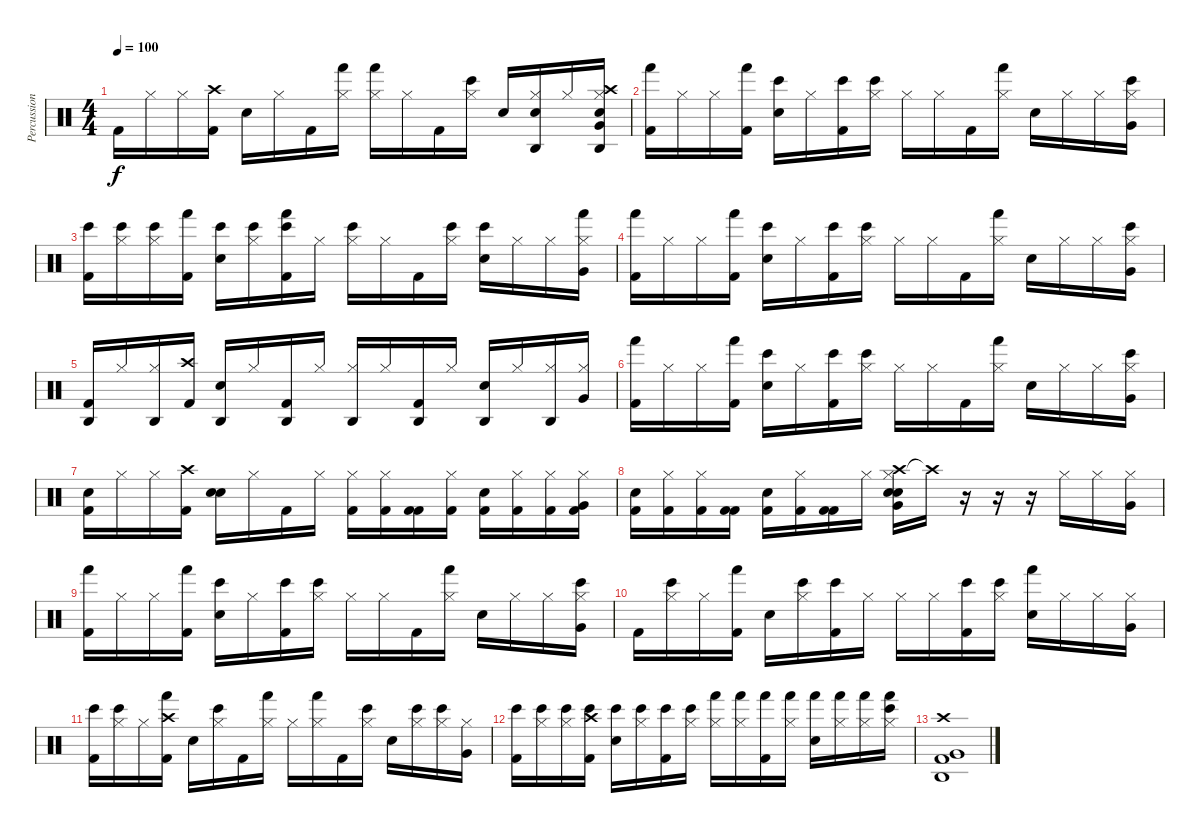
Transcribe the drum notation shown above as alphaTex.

\track ("Percussions" "Percussion") {instrument percussion}
\staff {score}
\articulation defaults
\ts (4 4)
\tempo 100
\clef neutral
\ks c "Kick (hit) 2".16{dy f} "Hi-Hat (closed)".16 "Hi-Hat (closed)".16
("Kick (hit) 2" "Crash high (hit)").16 "Electric Snare (hit)".16 "Hi-Hat (closed)".16 "Kick (hit) 2".16 ("Hi-Hat (closed)" "Hand (hit)").16 ("Hi-Hat (closed)" "Hand (hit)").16 "Hi-Hat (closed)".16 "Kick (hit) 2".16 ("Hi-Hat (closed)" "Bongo High (hit)").16 "Electric Snare (hit)".16 ("Hi-Hat (closed)" "Electric Snare (hit)" "Agogo high (hit)").16 "Hi-Hat (closed)".16 ("Hi-Hat (closed)" "Agogo high (hit)" "Crash high (hit)" "Electric Snare (hit)" "Very Low Tom (hit)").16 |
("Kick (hit) 2" "Hand (hit)").16 "Hi-Hat (closed)".16 "Hi-Hat (closed)".16 ("Kick (hit) 2" "Hand (hit)").16 ("Electric Snare (hit)" "Bongo High (hit)").16 "Hi-Hat (closed)".16 ("Kick (hit) 2" "Bongo High (hit)").16 ("Hi-Hat (closed)" "Bongo High (hit)").16 "Hi-Hat (closed)".16 "Hi-Hat (closed)".16 "Kick (hit) 2".16 ("Hi-Hat (closed)" "Hand (hit)").16 "Electric Snare (hit)".16 "Hi-Hat (closed)".16 "Hi-Hat (closed)".16 ("Hi-Hat (closed)" "Bongo High (hit)" "Very Low Tom (hit)").16 |
("Kick (hit) 2" "Bongo High (hit)").16 ("Hi-Hat (closed)" "Bongo High (hit)").16 ("Hi-Hat (closed)" "Bongo High (hit)").16 ("Kick (hit) 2" "Hand (hit)").16 ("Electric Snare (hit)" "Bongo High (hit)").16 ("Hi-Hat (closed)" "Bongo High (hit)").16 ("Kick (hit) 2" "Bongo High (hit)" "Hand (hit)").16 "Hi-Hat (closed)".16 ("Hi-Hat (closed)" "Bongo High (hit)").16 "Hi-Hat (closed)".16 "Kick (hit) 2".16 ("Hi-Hat (closed)" "Bongo High (hit)").16 ("Electric Snare (hit)" "Bongo High (hit)").16 "Hi-Hat (closed)".16 "Hi-Hat (closed)".16 ("Hi-Hat (closed)" "Hand (hit)" "Very Low Tom (hit)").16 |
("Kick (hit) 2" "Hand (hit)").16 "Hi-Hat (closed)".16 "Hi-Hat (closed)".16 ("Kick (hit) 2" "Hand (hit)").16 ("Electric Snare (hit)" "Bongo High (hit)").16 "Hi-Hat (closed)".16 ("Kick (hit) 2" "Bongo High (hit)").16 ("Hi-Hat (closed)" "Bongo High (hit)").16 "Hi-Hat (closed)".16 "Hi-Hat (closed)".16 "Kick (hit) 2".16 ("Hi-Hat (closed)" "Hand (hit)").16 "Electric Snare (hit)".16 "Hi-Hat (closed)".16 "Hi-Hat (closed)".16 ("Hi-Hat (closed)" "Bongo High (hit)" "Very Low Tom (hit)").16 |
("Kick (hit) 2" "Agogo high (hit)").16 "Hi-Hat (closed)".16 ("Hi-Hat (closed)" "Agogo high (hit)").16 ("Kick (hit) 2" "Crash high (hit)").16 ("Electric Snare (hit)" "Agogo high (hit)").16 "Hi-Hat (closed)".16 ("Kick (hit) 2" "Agogo high (hit)").16 "Hi-Hat (closed)".16 ("Hi-Hat (closed)" "Agogo high (hit)").16 "Hi-Hat (closed)".16 ("Kick (hit) 2" "Agogo high (hit)").16 "Hi-Hat (closed)".16 ("Electric Snare (hit)" "Agogo high (hit)").16 "Hi-Hat (closed)".16 ("Hi-Hat (closed)" "Agogo high (hit)").16 ("Hi-Hat (closed)" "Very Low Tom (hit)").16 |
("Kick (hit) 2" "Hand (hit)").16 "Hi-Hat (closed)".16 "Hi-Hat (closed)".16 ("Kick (hit) 2" "Hand (hit)").16 ("Electric Snare (hit)" "Bongo High (hit)").16 "Hi-Hat (closed)".16 ("Kick (hit) 2" "Bongo High (hit)").16 ("Hi-Hat (closed)" "Bongo High (hit)").16 "Hi-Hat (closed)".16 "Hi-Hat (closed)".16 "Kick (hit) 2".16 ("Hi-Hat (closed)" "Hand (hit)").16 "Electric Snare (hit)".16 "Hi-Hat (closed)".16 "Hi-Hat (closed)".16 ("Hi-Hat (closed)" "Bongo High (hit)" "Very Low Tom (hit)").16 |
("Kick (hit) 2" "Electric Snare (hit)").16 "Hi-Hat (closed)".16 "Hi-Hat (closed)".16 ("Kick (hit) 2" "Crash high (hit)").16 ("Electric Snare (hit)" "Electric Snare (hit)").16 "Hi-Hat (closed)".16 "Kick (hit) 2".16 "Hi-Hat (closed)".16 ("Hi-Hat (closed)" "Kick (hit) 2").16 ("Hi-Hat (closed)" "Kick (hit) 2").16 ("Kick (hit) 2" "Kick (hit) 2").16 ("Hi-Hat (closed)" "Kick (hit) 2").16 ("Electric Snare (hit)" "Kick (hit) 2").16 ("Hi-Hat (closed)" "Kick (hit) 2").16 ("Hi-Hat (closed)" "Kick (hit) 2").16 ("Hi-Hat (closed)" "Kick (hit) 2" "Very Low Tom (hit)").16 |
("Kick (hit) 2" "Electric Snare (hit)").16 ("Hi-Hat (closed)" "Kick (hit) 2").16 ("Hi-Hat (closed)" "Kick (hit) 2").16 ("Kick (hit) 2" "Kick (hit) 2").16 ("Electric Snare (hit)" "Kick (hit) 2").16 ("Hi-Hat (closed)" "Kick (hit) 2").16 ("Kick (hit) 2" "Kick (hit) 2").16 "Hi-Hat (closed)".16 ("Hi-Hat (closed)" "Electric Snare (hit)" "Very Low Tom (hit)" "Crash high (hit)" "Electric Snare (hit)").16 "Crash high (hit)"{t}.16 r.16 r.16 r.16 "Hi-Hat (closed)".16 "Hi-Hat (closed)".16 ("Hi-Hat (closed)" "Very Low Tom (hit)").16 |
("Kick (hit) 2" "Hand (hit)").16 "Hi-Hat (closed)".16 "Hi-Hat (closed)".16 ("Kick (hit) 2" "Hand (hit)").16 ("Electric Snare (hit)" "Bongo High (hit)").16 "Hi-Hat (closed)".16 ("Kick (hit) 2" "Bongo High (hit)").16 ("Hi-Hat (closed)" "Bongo High (hit)").16 "Hi-Hat (closed)".16 "Hi-Hat (closed)".16 "Kick (hit) 2".16 ("Hi-Hat (closed)" "Hand (hit)").16 "Electric Snare (hit)".16 "Hi-Hat (closed)".16 "Hi-Hat (closed)".16 ("Hi-Hat (closed)" "Bongo High (hit)" "Very Low Tom (hit)").16 |
"Kick (hit) 2".16 ("Hi-Hat (closed)" "Bongo High (hit)").16 "Hi-Hat (closed)".16 ("Kick (hit) 2" "Hand (hit)").16 "Electric Snare (hit)".16 ("Hi-Hat (closed)" "Bongo High (hit)").16 ("Kick (hit) 2" "Bongo High (hit)").16 "Hi-Hat (closed)".16 "Hi-Hat (closed)".16 "Hi-Hat (closed)".16 ("Kick (hit) 2" "Bongo High (hit)").16 ("Hi-Hat (closed)" "Bongo High (hit)").16 ("Electric Snare (hit)" "Hand (hit)").16 "Hi-Hat (closed)".16 "Hi-Hat (closed)".16 ("Hi-Hat (closed)" "Very Low Tom (hit)").16 |
("Kick (hit) 2" "Bongo High (hit)").16 ("Hi-Hat (closed)" "Bongo High (hit)").16 "Hi-Hat (closed)".16 ("Kick (hit) 2" "Hand (hit)" "Crash high (hit)").16 "Electric Snare (hit)".16 ("Hi-Hat (closed)" "Bongo High (hit)").16 "Kick (hit) 2".16 ("Hi-Hat (closed)" "Hand (hit)").16 "Hi-Hat (closed)".16 ("Hi-Hat (closed)" "Hand (hit)").16 "Kick (hit) 2".16 ("Hi-Hat (closed)" "Bongo High (hit)").16 "Electric Snare (hit)".16 ("Hi-Hat (closed)" "Bongo High (hit)").16 ("Hi-Hat (closed)" "Bongo High (hit)").16 ("Hi-Hat (closed)" "Very Low Tom (hit)").16 |
("Kick (hit) 2" "Bongo High (hit)").16 ("Hi-Hat (closed)" "Bongo High (hit)").16 ("Hi-Hat (closed)" "Bongo High (hit)").16 ("Kick (hit) 2" "Bongo High (hit)" "Crash high (hit)").16 ("Electric Snare (hit)" "Bongo High (hit)").16 ("Hi-Hat (closed)" "Bongo High (hit)").16 ("Kick (hit) 2" "Bongo High (hit)").16 ("Hi-Hat (closed)" "Bongo High (hit)").16 ("Hi-Hat (closed)" "Hand (hit)").16 ("Hi-Hat (closed)" "Hand (hit)").16 ("Kick (hit) 2" "Hand (hit)").16 ("Hi-Hat (closed)" "Hand (hit)").16 ("Electric Snare (hit)" "Hand (hit)").16 ("Hi-Hat (closed)" "Hand (hit)").16 ("Hi-Hat (closed)" "Hand (hit)").16 ("Hi-Hat (closed)" "Hand (hit)" "Bongo High (hit)").16 |
("Agogo high (hit)" "Crash high (hit)" "Very Low Tom (hit)" "Kick (hit) 2").1
